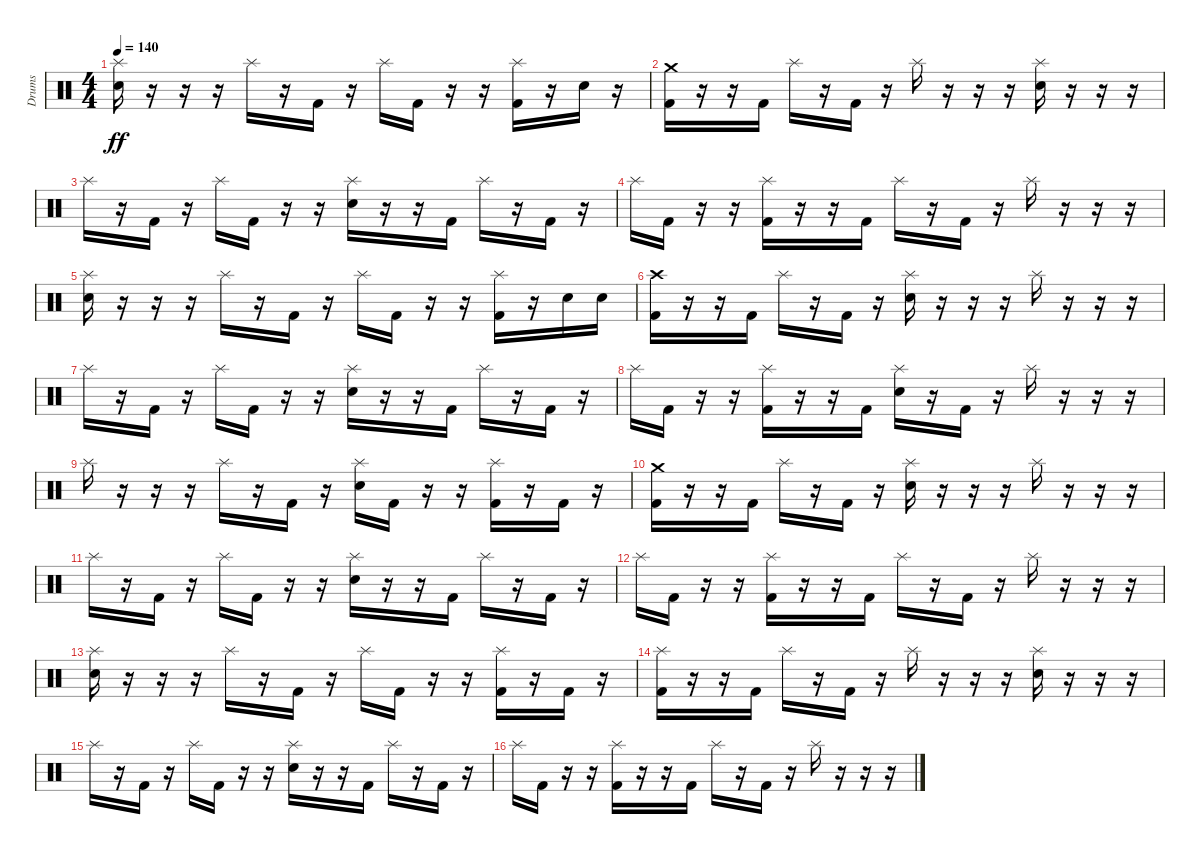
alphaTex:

\track ("Drums" "Drums") {instrument percussion}
\staff {score}
\articulation defaults
\ts (4 4)
\tempo 140
\clef neutral
\ks c
("Splash (hit)" "Electric Snare (hit)").16{dy ff} r.16 r.16 r.16 "Splash (hit)".16 r.16 "Kick (hit) 2".16 r.16 "Splash (hit)".16 "Kick (hit) 2".16 r.16 r.16 ("Splash (hit)" "Kick (hit) 2").16 r.16 "Electric Snare (hit)".16 r.16 |
("Crash medium (hit)" "Kick (hit) 2").16 r.16 r.16 "Kick (hit) 2".16 "Splash (hit)".16 r.16 "Kick (hit) 2".16 r.16 "Splash (hit)".16 r.16 r.16 r.16 ("Splash (hit)" "Electric Snare (hit)").16 r.16 r.16 r.16 |
"Splash (hit)".16 r.16 "Kick (hit) 2".16 r.16 "Splash (hit)".16 "Kick (hit) 2".16 r.16 r.16 ("Splash (hit)" "Electric Snare (hit)").16 r.16 r.16 "Kick (hit) 2".16 "Splash (hit)".16 r.16 "Kick (hit) 2".16 r.16 |
"Splash (hit)".16 "Kick (hit) 2".16 r.16 r.16 ("Splash (hit)" "Kick (hit) 2").16 r.16 r.16 "Kick (hit) 2".16 "Splash (hit)".16 r.16 "Kick (hit) 2".16 r.16 "Splash (hit)".16 r.16 r.16 r.16 |
("Splash (hit)" "Electric Snare (hit)").16 r.16 r.16 r.16 "Splash (hit)".16 r.16 "Kick (hit) 2".16 r.16 "Splash (hit)".16 "Kick (hit) 2".16 r.16 r.16 ("Splash (hit)" "Kick (hit) 2").16 r.16 "Electric Snare (hit)".16 "Electric Snare (hit)".16 |
("Crash high (hit)" "Kick (hit) 2").16 r.16 r.16 "Kick (hit) 2".16 "Splash (hit)".16 r.16 "Kick (hit) 2".16 r.16 ("Splash (hit)" "Electric Snare (hit)").16 r.16 r.16 r.16 "Splash (hit)".16 r.16 r.16 r.16 |
"Splash (hit)".16 r.16 "Kick (hit) 2".16 r.16 "Splash (hit)".16 "Kick (hit) 2".16 r.16 r.16 ("Splash (hit)" "Electric Snare (hit)").16 r.16 r.16 "Kick (hit) 2".16 "Splash (hit)".16 r.16 "Kick (hit) 2".16 r.16 |
"Splash (hit)".16 "Kick (hit) 2".16 r.16 r.16 ("Splash (hit)" "Kick (hit) 2").16 r.16 r.16 "Kick (hit) 2".16 ("Splash (hit)" "Electric Snare (hit)").16 r.16 "Kick (hit) 2".16 r.16 "Splash (hit)".16 r.16 r.16 r.16 |
"Splash (hit)".16 r.16 r.16 r.16 "Splash (hit)".16 r.16 "Kick (hit) 2".16 r.16 ("Splash (hit)" "Electric Snare (hit)").16 "Kick (hit) 2".16 r.16 r.16 ("Splash (hit)" "Kick (hit) 2").16 r.16 "Kick (hit) 2".16 r.16 |
("Crash medium (hit)" "Kick (hit) 2").16 r.16 r.16 "Kick (hit) 2".16 "Splash (hit)".16 r.16 "Kick (hit) 2".16 r.16 ("Splash (hit)" "Electric Snare (hit)").16 r.16 r.16 r.16 "Splash (hit)".16 r.16 r.16 r.16 |
"Splash (hit)".16 r.16 "Kick (hit) 2".16 r.16 "Splash (hit)".16 "Kick (hit) 2".16 r.16 r.16 ("Splash (hit)" "Electric Snare (hit)").16 r.16 r.16 "Kick (hit) 2".16 "Splash (hit)".16 r.16 "Kick (hit) 2".16 r.16 |
"Splash (hit)".16 "Kick (hit) 2".16 r.16 r.16 ("Splash (hit)" "Kick (hit) 2").16 r.16 r.16 "Kick (hit) 2".16 "Splash (hit)".16 r.16 "Kick (hit) 2".16 r.16 "Splash (hit)".16 r.16 r.16 r.16 |
("Splash (hit)" "Electric Snare (hit)").16 r.16 r.16 r.16 "Splash (hit)".16 r.16 "Kick (hit) 2".16 r.16 "Splash (hit)".16 "Kick (hit) 2".16 r.16 r.16 ("Splash (hit)" "Kick (hit) 2").16 r.16 "Kick (hit) 2".16 r.16 |
("Splash (hit)" "Kick (hit) 2").16{volume 11} r.16 r.16 "Kick (hit) 2".16 "Splash (hit)".16 r.16 "Kick (hit) 2".16 r.16 "Splash (hit)".16 r.16 r.16 r.16 ("Splash (hit)" "Electric Snare (hit)").16 r.16 r.16 r.16 |
"Splash (hit)".16 r.16 "Kick (hit) 2".16 r.16 "Splash (hit)".16 "Kick (hit) 2".16 r.16 r.16 ("Splash (hit)" "Electric Snare (hit)").16 r.16 r.16 "Kick (hit) 2".16 "Splash (hit)".16 r.16 "Kick (hit) 2".16 r.16 |
"Splash (hit)".16 "Kick (hit) 2".16 r.16 r.16 ("Splash (hit)" "Kick (hit) 2").16 r.16 r.16 "Kick (hit) 2".16 "Splash (hit)".16 r.16 "Kick (hit) 2".16 r.16 "Splash (hit)".16 r.16 r.16 r.16
